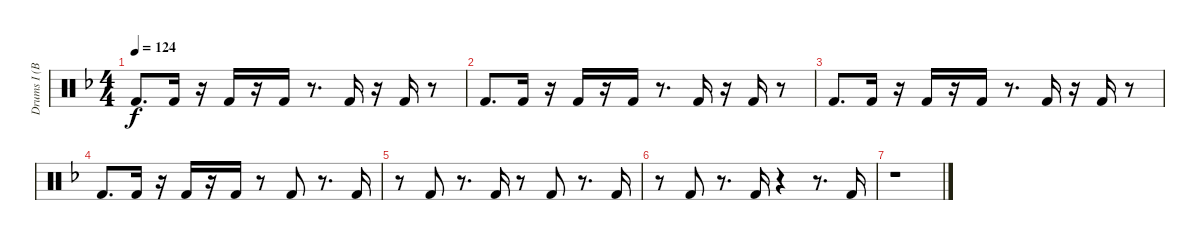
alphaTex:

\track ("Drums I (Bass Drums) (RUKA)" "Drums I (B") {instrument percussion}
\staff {score}
\articulation defaults
\ts (4 4)
\tempo 124
\clef neutral
\ks f "Kick (hit) 2".8{d dy f} "Kick (hit) 2".16
r.16 "Kick (hit) 2".16 r.16 "Kick (hit) 2".16 r.8{d} "Kick (hit) 2".16 r.16 "Kick (hit) 2".16 r.8 |
"Kick (hit) 2".8{d} "Kick (hit) 2".16 r.16 "Kick (hit) 2".16 r.16 "Kick (hit) 2".16 r.8{d} "Kick (hit) 2".16 r.16 "Kick (hit) 2".16 r.8 |
"Kick (hit) 2".8{d} "Kick (hit) 2".16 r.16 "Kick (hit) 2".16 r.16 "Kick (hit) 2".16 r.8{d} "Kick (hit) 2".16 r.16 "Kick (hit) 2".16 r.8 |
"Kick (hit) 2".8{d} "Kick (hit) 2".16 r.16 "Kick (hit) 2".16 r.16 "Kick (hit) 2".16 r.8 "Kick (hit) 2".8 r.8{d} "Kick (hit) 2".16 |
r.8 "Kick (hit) 2".8 r.8{d} "Kick (hit) 2".16 r.8 "Kick (hit) 2".8 r.8{d} "Kick (hit) 2".16 |
r.8 "Kick (hit) 2".8 r.8{d} "Kick (hit) 2".16 r.4 r.8{d} "Kick (hit) 2".16 |
r.1
